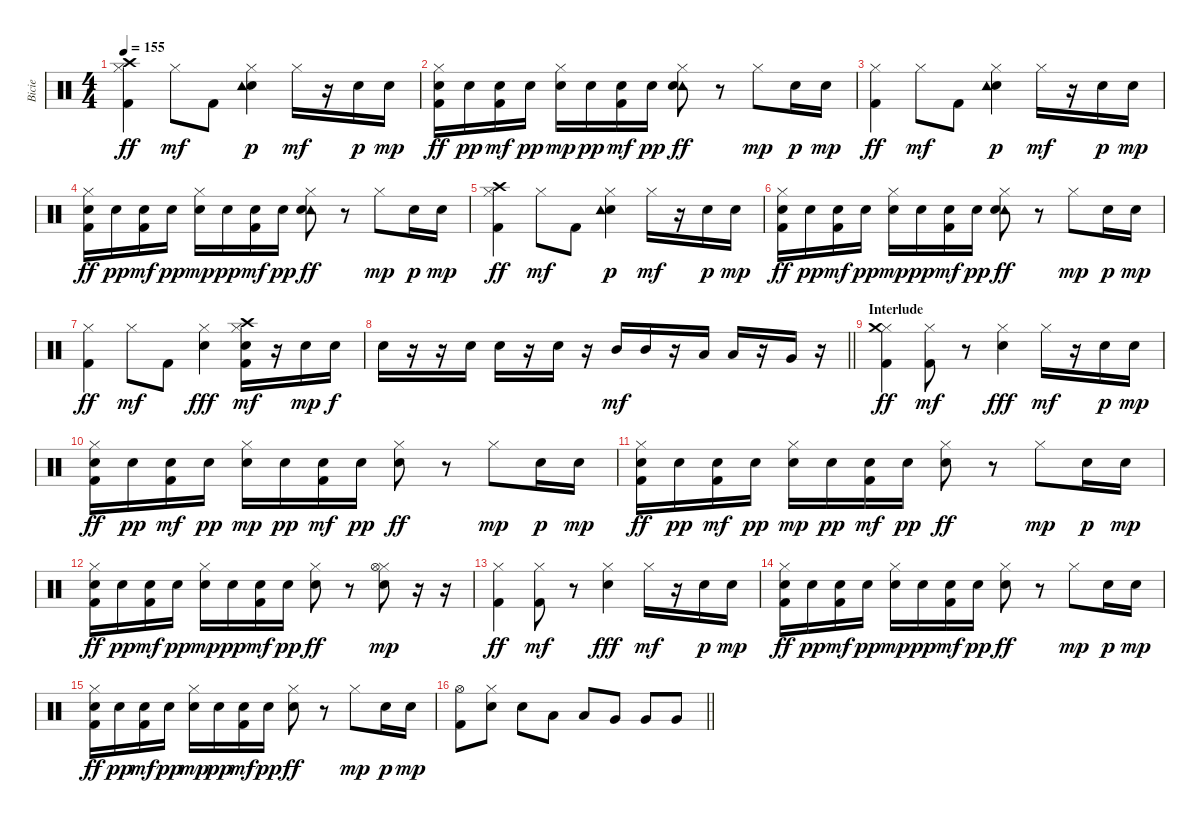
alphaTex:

\track ("Bicie" "Bicie") {instrument percussion}
\staff {score}
\articulation defaults
\ts (4 4)
\tempo 155
\clef neutral
\ks c
("Hi-Hat (closed)" "Crash high (hit)" "Kick (hit) 2").4{dy ff} "Hi-Hat (closed)".8{dy mf} "Kick (hit) 2".8 ("Hi-Hat (closed)" "Electric Snare (hit)" "Tambourine (hit)").4{dy p} "Hi-Hat (closed)".16{dy mf} r.16 "Electric Snare (hit)".16{dy p} "Electric Snare (hit)".16{dy mp} |
("Hi-Hat (closed)" "Electric Snare (hit)" "Kick (hit) 2").16{dy ff} "Electric Snare (hit)".16{dy pp} ("Electric Snare (hit)" "Kick (hit) 2").16{dy mf} "Electric Snare (hit)".16{dy pp} ("Hi-Hat (closed)" "Electric Snare (hit)").16{dy mp} "Electric Snare (hit)".16{dy pp} ("Electric Snare (hit)" "Kick (hit) 2").16{dy mf} "Electric Snare (hit)".16{dy pp} ("Hi-Hat (closed)" "Tambourine (hit)" "Electric Snare (hit)").8{dy ff} r.8 "Hi-Hat (closed)".8{dy mp} "Electric Snare (hit)".16{dy p} "Electric Snare (hit)".16{dy mp} |
("Hi-Hat (closed)" "Kick (hit) 2").4{dy ff} "Hi-Hat (closed)".8{dy mf} "Kick (hit) 2".8 ("Hi-Hat (closed)" "Electric Snare (hit)" "Tambourine (hit)").4{dy p} "Hi-Hat (closed)".16{dy mf} r.16 "Electric Snare (hit)".16{dy p} "Electric Snare (hit)".16{dy mp} |
("Hi-Hat (closed)" "Electric Snare (hit)" "Kick (hit) 2").16{dy ff} "Electric Snare (hit)".16{dy pp} ("Electric Snare (hit)" "Kick (hit) 2").16{dy mf} "Electric Snare (hit)".16{dy pp} ("Hi-Hat (closed)" "Electric Snare (hit)").16{dy mp} "Electric Snare (hit)".16{dy pp} ("Electric Snare (hit)" "Kick (hit) 2").16{dy mf} "Electric Snare (hit)".16{dy pp} ("Hi-Hat (closed)" "Tambourine (hit)" "Electric Snare (hit)").8{dy ff} r.8 "Hi-Hat (closed)".8{dy mp} "Electric Snare (hit)".16{dy p} "Electric Snare (hit)".16{dy mp} |
("Hi-Hat (closed)" "Crash high (hit)" "Kick (hit) 2").4{dy ff} "Hi-Hat (closed)".8{dy mf} "Kick (hit) 2".8 ("Hi-Hat (closed)" "Electric Snare (hit)" "Tambourine (hit)").4{dy p} "Hi-Hat (closed)".16{dy mf} r.16 "Electric Snare (hit)".16{dy p} "Electric Snare (hit)".16{dy mp} |
("Hi-Hat (closed)" "Electric Snare (hit)" "Kick (hit) 2").16{dy ff} "Electric Snare (hit)".16{dy pp} ("Electric Snare (hit)" "Kick (hit) 2").16{dy mf} "Electric Snare (hit)".16{dy pp} ("Hi-Hat (closed)" "Electric Snare (hit)").16{dy mp} "Electric Snare (hit)".16{dy pp} ("Electric Snare (hit)" "Kick (hit) 2").16{dy mf} "Electric Snare (hit)".16{dy pp} ("Hi-Hat (closed)" "Tambourine (hit)" "Electric Snare (hit)").8{dy ff} r.8 "Hi-Hat (closed)".8{dy mp} "Electric Snare (hit)".16{dy p} "Electric Snare (hit)".16{dy mp} |
("Hi-Hat (closed)" "Kick (hit) 2").4{dy ff} "Hi-Hat (closed)".8{dy mf} "Kick (hit) 2".8 ("Hi-Hat (closed)" "Electric Snare (hit)").4{dy fff} ("Hi-Hat (closed)" "Electric Snare (hit)" "Kick (hit) 2" "Crash high (hit)").16{dy mf} r.16 "Electric Snare (hit)".16{dy mp} "Electric Snare (hit)".16{dy f} |
\barLineRight lightlight "Electric Snare (hit)".16
r.16 r.16 "Electric Snare (hit)".16 "Electric Snare (hit)".16 r.16 "Electric Snare (hit)".16 r.16 "Mid Tom (hit)".16{dy mf} "Mid Tom (hit)".16 r.16 "Low Tom (hit)".16 "Low Tom (hit)".16 r.16 "Very Low Tom (hit)".16 r.16 |
\section ("" "Interlude")
("Hi-Hat (closed)" "Crash medium (hit)" "Kick (hit) 2").4{dy ff} ("Hi-Hat (closed)" "Kick (hit) 2").8{dy mf} r.8 ("Hi-Hat (closed)" "Electric Snare (hit)").4{dy fff} "Hi-Hat (closed)".16{dy mf} r.16 "Electric Snare (hit)".16{dy p} "Electric Snare (hit)".16{dy mp} |
("Hi-Hat (closed)" "Electric Snare (hit)" "Kick (hit) 2").16{dy ff} "Electric Snare (hit)".16{dy pp} ("Electric Snare (hit)" "Kick (hit) 2").16{dy mf} "Electric Snare (hit)".16{dy pp} ("Hi-Hat (closed)" "Electric Snare (hit)").16{dy mp} "Electric Snare (hit)".16{dy pp} ("Electric Snare (hit)" "Kick (hit) 2").16{dy mf} "Electric Snare (hit)".16{dy pp} ("Hi-Hat (closed)" "Electric Snare (hit)").8{dy ff} r.8 "Hi-Hat (closed)".8{dy mp} "Electric Snare (hit)".16{dy p} "Electric Snare (hit)".16{dy mp} |
("Hi-Hat (closed)" "Electric Snare (hit)" "Kick (hit) 2").16{dy ff} "Electric Snare (hit)".16{dy pp} ("Electric Snare (hit)" "Kick (hit) 2").16{dy mf} "Electric Snare (hit)".16{dy pp} ("Hi-Hat (closed)" "Electric Snare (hit)").16{dy mp} "Electric Snare (hit)".16{dy pp} ("Electric Snare (hit)" "Kick (hit) 2").16{dy mf} "Electric Snare (hit)".16{dy pp} ("Hi-Hat (closed)" "Electric Snare (hit)").8{dy ff} r.8 "Hi-Hat (closed)".8{dy mp} "Electric Snare (hit)".16{dy p} "Electric Snare (hit)".16{dy mp} |
("Hi-Hat (closed)" "Electric Snare (hit)" "Kick (hit) 2").16{dy ff} "Electric Snare (hit)".16{dy pp} ("Electric Snare (hit)" "Kick (hit) 2").16{dy mf} "Electric Snare (hit)".16{dy pp} ("Hi-Hat (closed)" "Electric Snare (hit)").16{dy mp} "Electric Snare (hit)".16{dy pp} ("Electric Snare (hit)" "Kick (hit) 2").16{dy mf} "Electric Snare (hit)".16{dy pp} ("Hi-Hat (closed)" "Electric Snare (hit)").8{dy ff} r.8 ("Hi-Hat (closed)" "Hi-Hat (open)" "Electric Snare (hit)").8{dy mp} r.16 r.16 |
("Hi-Hat (closed)" "Kick (hit) 2").4{dy ff} ("Hi-Hat (closed)" "Kick (hit) 2").8{dy mf} r.8 ("Hi-Hat (closed)" "Electric Snare (hit)").4{dy fff} "Hi-Hat (closed)".16{dy mf} r.16 "Electric Snare (hit)".16{dy p} "Electric Snare (hit)".16{dy mp} |
("Hi-Hat (closed)" "Electric Snare (hit)" "Kick (hit) 2").16{dy ff} "Electric Snare (hit)".16{dy pp} ("Electric Snare (hit)" "Kick (hit) 2").16{dy mf} "Electric Snare (hit)".16{dy pp} ("Hi-Hat (closed)" "Electric Snare (hit)").16{dy mp} "Electric Snare (hit)".16{dy pp} ("Electric Snare (hit)" "Kick (hit) 2").16{dy mf} "Electric Snare (hit)".16{dy pp} ("Hi-Hat (closed)" "Electric Snare (hit)").8{dy ff} r.8 "Hi-Hat (closed)".8{dy mp} "Electric Snare (hit)".16{dy p} "Electric Snare (hit)".16{dy mp} |
("Hi-Hat (closed)" "Electric Snare (hit)" "Kick (hit) 2").16{dy ff} "Electric Snare (hit)".16{dy pp} ("Electric Snare (hit)" "Kick (hit) 2").16{dy mf} "Electric Snare (hit)".16{dy pp} ("Hi-Hat (closed)" "Electric Snare (hit)").16{dy mp} "Electric Snare (hit)".16{dy pp} ("Electric Snare (hit)" "Kick (hit) 2").16{dy mf} "Electric Snare (hit)".16{dy pp} ("Hi-Hat (closed)" "Electric Snare (hit)").8{dy ff} r.8 "Hi-Hat (closed)".8{dy mp} "Electric Snare (hit)".16{dy p} "Electric Snare (hit)".16{dy mp} |
\barLineRight lightlight
("Kick (hit) 2" "Hi-Hat (open)").8 ("Hi-Hat (closed)" "Electric Snare (hit)").8 "Electric Snare (hit)".8 "Low Tom (hit)".8 "Low Tom (hit)".8 "Very Low Tom (hit)".8 "Very Low Tom (hit)".8 "Very Low Tom (hit)".8
